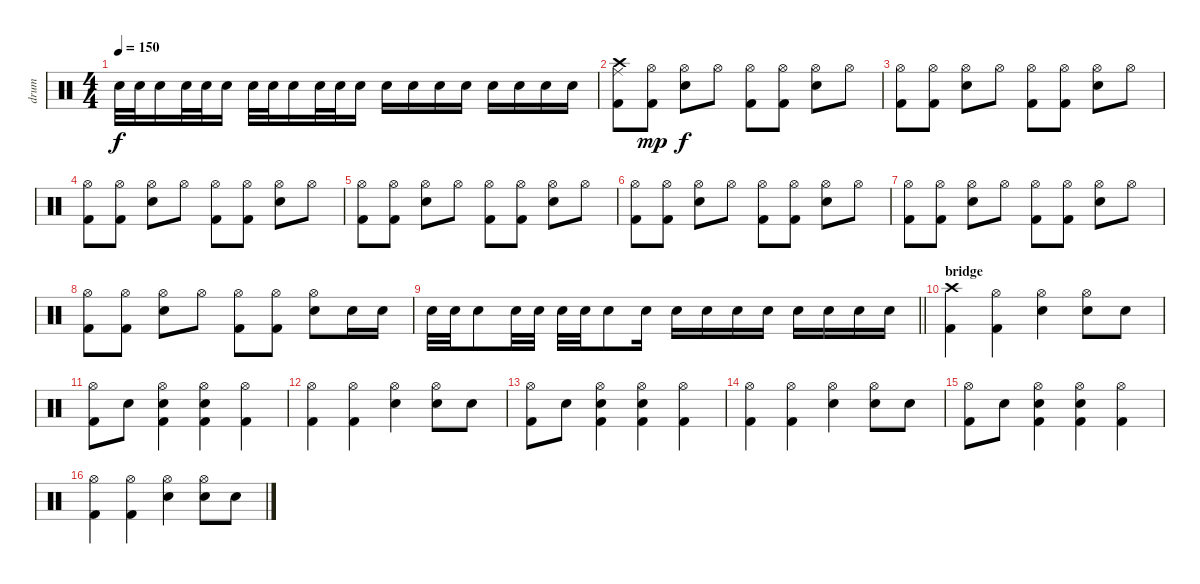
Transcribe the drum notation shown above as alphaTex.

\track ("drum" "drum") {instrument percussion}
\staff {score}
\articulation defaults
\ts (4 4)
\tempo 150
\clef neutral
\ks c "Snare (hit) 2".32{dy f} "Snare (hit) 2".32 "Snare (hit) 2".16 "Snare (hit) 2".32 "Snare (hit)".32 "Snare (hit) 2".16 "Snare (hit) 2".32 "Snare (hit) 2".32 "Snare (hit) 2".16 "Snare (hit) 2".32 "Snare (hit)".32 "Snare (hit) 2".16 "Snare (hit) 2".16 "Snare (hit) 2".16 "Snare (hit) 2".16 "Snare (hit) 2".16 "Snare (hit) 2".16 "Snare (hit) 2".16 "Snare (hit) 2".16 "Snare (hit) 2".16
|
("Ride (middle)" "Crash high (hit)" "Kick (hit) 2").8 ("Hi-Hat (open)" "Kick (hit) 2").8{dy mp} ("Hi-Hat (open)" "Snare (hit) 2").8{dy f} "Hi-Hat (open)".8 ("Hi-Hat (open)" "Kick (hit) 2").8 ("Hi-Hat (open)" "Kick (hit) 2").8 ("Hi-Hat (open)" "Snare (hit) 2").8 "Hi-Hat (open)".8 |
("Hi-Hat (open)" "Kick (hit) 2").8 ("Hi-Hat (open)" "Kick (hit) 2").8 ("Hi-Hat (open)" "Snare (hit) 2").8 "Hi-Hat (open)".8 ("Hi-Hat (open)" "Kick (hit) 2").8 ("Hi-Hat (open)" "Kick (hit) 2").8 ("Hi-Hat (open)" "Snare (hit) 2").8 "Hi-Hat (open)".8 |
("Hi-Hat (open)" "Kick (hit) 2").8 ("Hi-Hat (open)" "Kick (hit) 2").8 ("Hi-Hat (open)" "Snare (hit) 2").8 "Hi-Hat (open)".8 ("Hi-Hat (open)" "Kick (hit) 2").8 ("Hi-Hat (open)" "Kick (hit) 2").8 ("Hi-Hat (open)" "Snare (hit) 2").8 "Hi-Hat (open)".8 |
("Hi-Hat (open)" "Kick (hit) 2").8 ("Hi-Hat (open)" "Kick (hit) 2").8 ("Hi-Hat (open)" "Snare (hit) 2").8 "Hi-Hat (open)".8 ("Hi-Hat (open)" "Kick (hit) 2").8 ("Hi-Hat (open)" "Kick (hit) 2").8 ("Hi-Hat (open)" "Snare (hit) 2").8 "Hi-Hat (open)".8 |
("Hi-Hat (open)" "Kick (hit) 2").8 ("Hi-Hat (open)" "Kick (hit) 2").8 ("Hi-Hat (open)" "Snare (hit) 2").8 "Hi-Hat (open)".8 ("Hi-Hat (open)" "Kick (hit) 2").8 ("Hi-Hat (open)" "Kick (hit) 2").8 ("Hi-Hat (open)" "Snare (hit) 2").8 "Hi-Hat (open)".8 |
("Hi-Hat (open)" "Kick (hit) 2").8 ("Hi-Hat (open)" "Kick (hit) 2").8 ("Hi-Hat (open)" "Snare (hit) 2").8 "Hi-Hat (open)".8 ("Hi-Hat (open)" "Kick (hit) 2").8 ("Hi-Hat (open)" "Kick (hit) 2").8 ("Hi-Hat (open)" "Snare (hit) 2").8 "Hi-Hat (open)".8 |
("Hi-Hat (open)" "Kick (hit) 2").8 ("Hi-Hat (open)" "Kick (hit) 2").8 ("Hi-Hat (open)" "Snare (hit) 2").8 "Hi-Hat (open)".8 ("Hi-Hat (open)" "Kick (hit) 2").8 ("Hi-Hat (open)" "Kick (hit) 2").8 ("Hi-Hat (open)" "Snare (hit) 2").8 "Snare (hit) 2".16 "Snare (hit) 2".16 |
\barLineRight lightlight "Snare (hit) 2".32 "Snare (hit) 2".32 "Snare (hit) 2".8 "Snare (hit) 2".32 "Snare (hit) 2".32 "Snare (hit) 2".32 "Snare (hit) 2".32 "Snare (hit) 2".8 "Snare (hit) 2".16 "Snare (hit) 2".16 "Snare (hit) 2".16 "Snare (hit) 2".16 "Snare (hit) 2".16 "Snare (hit) 2".16 "Snare (hit) 2".16 "Snare (hit) 2".16 "Snare (hit) 2".16
|
\section ("" "bridge")
("Crash high (hit)" "Kick (hit) 2").4 ("Hi-Hat (open)" "Kick (hit) 2").4 ("Hi-Hat (open)" "Snare (hit) 2").4 ("Hi-Hat (open)" "Snare (hit) 2").8 "Snare (hit) 2".8 |
("Hi-Hat (open)" "Kick (hit) 2").8 "Snare (hit) 2".8 ("Hi-Hat (open)" "Snare (hit) 2" "Kick (hit) 2").4 ("Hi-Hat (open)" "Snare (hit) 2" "Kick (hit) 2").4 ("Hi-Hat (open)" "Kick (hit) 2").4 |
("Hi-Hat (open)" "Kick (hit) 2").4 ("Hi-Hat (open)" "Kick (hit) 2").4 ("Hi-Hat (open)" "Snare (hit) 2").4 ("Hi-Hat (open)" "Snare (hit) 2").8 "Snare (hit) 2".8 |
("Hi-Hat (open)" "Kick (hit) 2").8 "Snare (hit) 2".8 ("Hi-Hat (open)" "Snare (hit) 2" "Kick (hit) 2").4 ("Hi-Hat (open)" "Snare (hit) 2" "Kick (hit) 2").4 ("Hi-Hat (open)" "Kick (hit) 2").4 |
("Hi-Hat (open)" "Kick (hit) 2").4 ("Hi-Hat (open)" "Kick (hit) 2").4 ("Hi-Hat (open)" "Snare (hit) 2").4 ("Hi-Hat (open)" "Snare (hit) 2").8 "Snare (hit) 2".8 |
("Hi-Hat (open)" "Kick (hit) 2").8 "Snare (hit) 2".8 ("Hi-Hat (open)" "Snare (hit) 2" "Kick (hit) 2").4 ("Hi-Hat (open)" "Snare (hit) 2" "Kick (hit) 2").4 ("Hi-Hat (open)" "Kick (hit) 2").4 |
("Hi-Hat (open)" "Kick (hit) 2").4 ("Hi-Hat (open)" "Kick (hit) 2").4 ("Hi-Hat (open)" "Snare (hit) 2").4 ("Hi-Hat (open)" "Snare (hit) 2").8 "Snare (hit) 2".8
